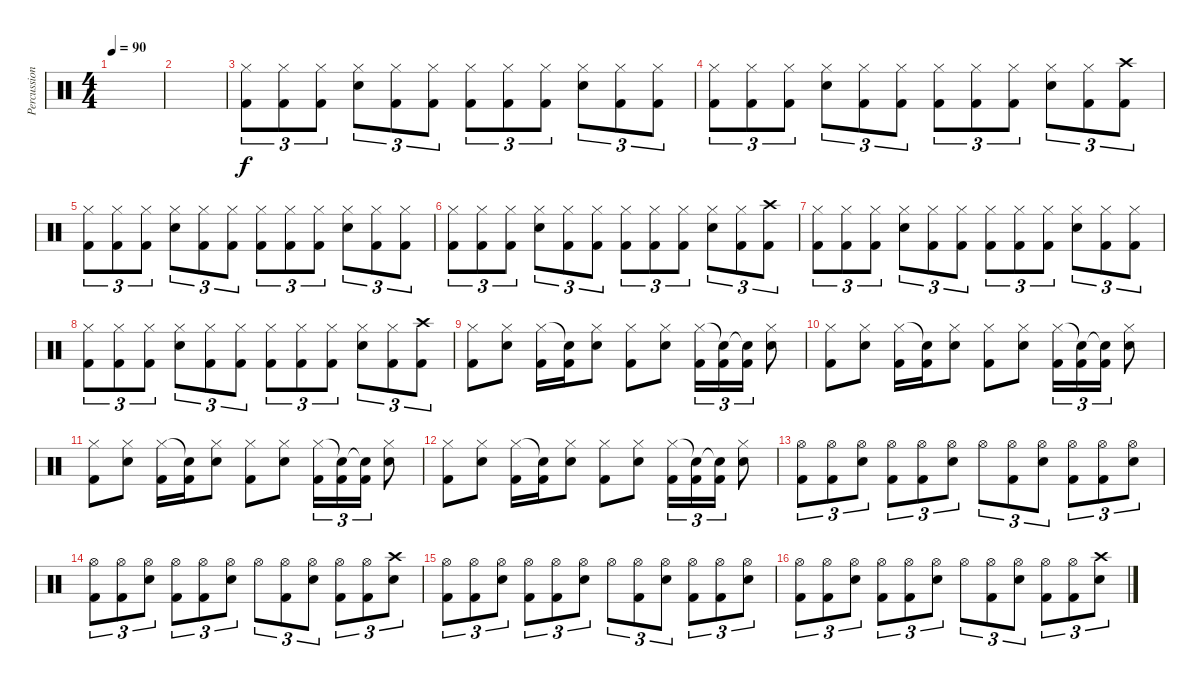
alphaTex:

\track ("Percussion" "Percussion") {instrument percussion}
\staff {score}
\articulation defaults
\ts (4 4)
\tempo 90
\clef neutral
\ks c
|
|
("Hi-Hat (closed)" "Kick (hit) 2").8{tu (3 2)} ("Hi-Hat (closed)" "Kick (hit) 2").8{tu (3 2)} ("Hi-Hat (closed)" "Kick (hit) 2").8{tu (3 2)} ("Hi-Hat (closed)" "Electric Snare (hit)").8{tu (3 2)} ("Hi-Hat (closed)" "Kick (hit) 2").8{tu (3 2)} ("Hi-Hat (closed)" "Kick (hit) 2").8{tu (3 2)} ("Hi-Hat (closed)" "Kick (hit) 2").8{tu (3 2)} ("Hi-Hat (closed)" "Kick (hit) 2").8{tu (3 2)} ("Hi-Hat (closed)" "Kick (hit) 2").8{tu (3 2)} ("Hi-Hat (closed)" "Electric Snare (hit)").8{tu (3 2)} ("Hi-Hat (closed)" "Kick (hit) 2").8{tu (3 2)} ("Hi-Hat (closed)" "Kick (hit) 2").8{tu (3 2)} |
("Hi-Hat (closed)" "Kick (hit) 2").8{tu (3 2)} ("Hi-Hat (closed)" "Kick (hit) 2").8{tu (3 2)} ("Hi-Hat (closed)" "Kick (hit) 2").8{tu (3 2)} ("Hi-Hat (closed)" "Electric Snare (hit)").8{tu (3 2)} ("Hi-Hat (closed)" "Kick (hit) 2").8{tu (3 2)} ("Hi-Hat (closed)" "Kick (hit) 2").8{tu (3 2)} ("Hi-Hat (closed)" "Kick (hit) 2").8{tu (3 2)} ("Hi-Hat (closed)" "Kick (hit) 2").8{tu (3 2)} ("Hi-Hat (closed)" "Kick (hit) 2").8{tu (3 2)} ("Hi-Hat (closed)" "Electric Snare (hit)").8{tu (3 2)} ("Hi-Hat (closed)" "Kick (hit) 2").8{tu (3 2)} ("Crash high (hit)" "Kick (hit) 2").8{tu (3 2)} |
("Hi-Hat (closed)" "Kick (hit) 2").8{tu (3 2)} ("Hi-Hat (closed)" "Kick (hit) 2").8{tu (3 2)} ("Hi-Hat (closed)" "Kick (hit) 2").8{tu (3 2)} ("Hi-Hat (closed)" "Electric Snare (hit)").8{tu (3 2)} ("Hi-Hat (closed)" "Kick (hit) 2").8{tu (3 2)} ("Hi-Hat (closed)" "Kick (hit) 2").8{tu (3 2)} ("Hi-Hat (closed)" "Kick (hit) 2").8{tu (3 2)} ("Hi-Hat (closed)" "Kick (hit) 2").8{tu (3 2)} ("Hi-Hat (closed)" "Kick (hit) 2").8{tu (3 2)} ("Hi-Hat (closed)" "Electric Snare (hit)").8{tu (3 2)} ("Hi-Hat (closed)" "Kick (hit) 2").8{tu (3 2)} ("Hi-Hat (closed)" "Kick (hit) 2").8{tu (3 2)} |
("Hi-Hat (closed)" "Kick (hit) 2").8{tu (3 2)} ("Hi-Hat (closed)" "Kick (hit) 2").8{tu (3 2)} ("Hi-Hat (closed)" "Kick (hit) 2").8{tu (3 2)} ("Hi-Hat (closed)" "Electric Snare (hit)").8{tu (3 2)} ("Hi-Hat (closed)" "Kick (hit) 2").8{tu (3 2)} ("Hi-Hat (closed)" "Kick (hit) 2").8{tu (3 2)} ("Hi-Hat (closed)" "Kick (hit) 2").8{tu (3 2)} ("Hi-Hat (closed)" "Kick (hit) 2").8{tu (3 2)} ("Hi-Hat (closed)" "Kick (hit) 2").8{tu (3 2)} ("Hi-Hat (closed)" "Electric Snare (hit)").8{tu (3 2)} ("Hi-Hat (closed)" "Kick (hit) 2").8{tu (3 2)} ("Crash high (hit)" "Kick (hit) 2").8{tu (3 2)} |
("Hi-Hat (closed)" "Kick (hit) 2").8{tu (3 2)} ("Hi-Hat (closed)" "Kick (hit) 2").8{tu (3 2)} ("Hi-Hat (closed)" "Kick (hit) 2").8{tu (3 2)} ("Hi-Hat (closed)" "Electric Snare (hit)").8{tu (3 2)} ("Hi-Hat (closed)" "Kick (hit) 2").8{tu (3 2)} ("Hi-Hat (closed)" "Kick (hit) 2").8{tu (3 2)} ("Hi-Hat (closed)" "Kick (hit) 2").8{tu (3 2)} ("Hi-Hat (closed)" "Kick (hit) 2").8{tu (3 2)} ("Hi-Hat (closed)" "Kick (hit) 2").8{tu (3 2)} ("Hi-Hat (closed)" "Electric Snare (hit)").8{tu (3 2)} ("Hi-Hat (closed)" "Kick (hit) 2").8{tu (3 2)} ("Hi-Hat (closed)" "Kick (hit) 2").8{tu (3 2)} |
("Hi-Hat (closed)" "Kick (hit) 2").8{tu (3 2)} ("Hi-Hat (closed)" "Kick (hit) 2").8{tu (3 2)} ("Hi-Hat (closed)" "Kick (hit) 2").8{tu (3 2)} ("Hi-Hat (closed)" "Electric Snare (hit)").8{tu (3 2)} ("Hi-Hat (closed)" "Kick (hit) 2").8{tu (3 2)} ("Hi-Hat (closed)" "Kick (hit) 2").8{tu (3 2)} ("Hi-Hat (closed)" "Kick (hit) 2").8{tu (3 2)} ("Hi-Hat (closed)" "Kick (hit) 2").8{tu (3 2)} ("Hi-Hat (closed)" "Kick (hit) 2").8{tu (3 2)} ("Hi-Hat (closed)" "Electric Snare (hit)").8{tu (3 2)} ("Hi-Hat (closed)" "Kick (hit) 2").8{tu (3 2)} ("Crash high (hit)" "Kick (hit) 2").8{tu (3 2)} |
("Hi-Hat (closed)" "Kick (hit) 2").8 ("Hi-Hat (closed)" "Electric Snare (hit)").8 ("Hi-Hat (closed)" "Kick (hit) 2").16 ("Snare (hit)"{t} "Kick (hit) 2").16 ("Hi-Hat (closed)" "Electric Snare (hit)").8 ("Hi-Hat (closed)" "Kick (hit) 2").8 ("Hi-Hat (closed)" "Electric Snare (hit)").8 ("Hi-Hat (closed)" "Kick (hit) 2").16{tu (3 2)} ("Snare (hit)"{t} "Kick (hit) 2").16{tu (3 2)} ("Snare (hit)"{t} "Kick (hit) 2").16{tu (3 2)} ("Hi-Hat (closed)" "Electric Snare (hit)").8 |
("Hi-Hat (closed)" "Kick (hit) 2").8 ("Hi-Hat (closed)" "Electric Snare (hit)").8 ("Hi-Hat (closed)" "Kick (hit) 2").16 ("Snare (hit)"{t} "Kick (hit) 2").16 ("Hi-Hat (closed)" "Electric Snare (hit)").8 ("Hi-Hat (closed)" "Kick (hit) 2").8 ("Hi-Hat (closed)" "Electric Snare (hit)").8 ("Hi-Hat (closed)" "Kick (hit) 2").16{tu (3 2)} ("Snare (hit)"{t} "Kick (hit) 2").16{tu (3 2)} ("Snare (hit)"{t} "Kick (hit) 2").16{tu (3 2)} ("Hi-Hat (closed)" "Electric Snare (hit)").8 |
("Hi-Hat (closed)" "Kick (hit) 2").8 ("Hi-Hat (closed)" "Electric Snare (hit)").8 ("Hi-Hat (closed)" "Kick (hit) 2").16 ("Snare (hit)"{t} "Kick (hit) 2").16 ("Hi-Hat (closed)" "Electric Snare (hit)").8 ("Hi-Hat (closed)" "Kick (hit) 2").8 ("Hi-Hat (closed)" "Electric Snare (hit)").8 ("Hi-Hat (closed)" "Kick (hit) 2").16{tu (3 2)} ("Snare (hit)"{t} "Kick (hit) 2").16{tu (3 2)} ("Snare (hit)"{t} "Kick (hit) 2").16{tu (3 2)} ("Hi-Hat (closed)" "Electric Snare (hit)").8 |
("Hi-Hat (closed)" "Kick (hit) 2").8 ("Hi-Hat (closed)" "Electric Snare (hit)").8 ("Hi-Hat (closed)" "Kick (hit) 2").16 ("Snare (hit)"{t} "Kick (hit) 2").16 ("Hi-Hat (closed)" "Electric Snare (hit)").8 ("Hi-Hat (closed)" "Kick (hit) 2").8 ("Hi-Hat (closed)" "Electric Snare (hit)").8 ("Hi-Hat (closed)" "Kick (hit) 2").16{tu (3 2)} ("Snare (hit)"{t} "Kick (hit) 2").16{tu (3 2)} ("Snare (hit)"{t} "Kick (hit) 2").16{tu (3 2)} ("Hi-Hat (closed)" "Electric Snare (hit)").8 |
("Hi-Hat (open)" "Kick (hit) 2").8{tu (3 2)} ("Hi-Hat (open)" "Kick (hit) 2").8{tu (3 2)} ("Hi-Hat (open)" "Electric Snare (hit)").8{tu (3 2)} ("Hi-Hat (open)" "Kick (hit) 2").8{tu (3 2)} ("Hi-Hat (open)" "Kick (hit) 2").8{tu (3 2)} ("Hi-Hat (open)" "Electric Snare (hit)").8{tu (3 2)} "Hi-Hat (open)".8{tu (3 2)} ("Hi-Hat (open)" "Kick (hit) 2").8{tu (3 2)} ("Hi-Hat (open)" "Electric Snare (hit)").8{tu (3 2)} ("Hi-Hat (open)" "Kick (hit) 2").8{tu (3 2)} ("Hi-Hat (open)" "Kick (hit) 2").8{tu (3 2)} ("Hi-Hat (open)" "Electric Snare (hit)").8{tu (3 2)} |
("Hi-Hat (open)" "Kick (hit) 2").8{tu (3 2)} ("Hi-Hat (open)" "Kick (hit) 2").8{tu (3 2)} ("Hi-Hat (open)" "Electric Snare (hit)").8{tu (3 2)} ("Hi-Hat (open)" "Kick (hit) 2").8{tu (3 2)} ("Hi-Hat (open)" "Kick (hit) 2").8{tu (3 2)} ("Hi-Hat (open)" "Electric Snare (hit)").8{tu (3 2)} "Hi-Hat (open)".8{tu (3 2)} ("Hi-Hat (open)" "Kick (hit) 2").8{tu (3 2)} ("Hi-Hat (open)" "Electric Snare (hit)").8{tu (3 2)} ("Hi-Hat (open)" "Kick (hit) 2").8{tu (3 2)} ("Hi-Hat (open)" "Kick (hit) 2").8{tu (3 2)} ("Crash high (hit)" "Electric Snare (hit)").8{tu (3 2)} |
("Hi-Hat (open)" "Kick (hit) 2").8{tu (3 2)} ("Hi-Hat (open)" "Kick (hit) 2").8{tu (3 2)} ("Hi-Hat (open)" "Electric Snare (hit)").8{tu (3 2)} ("Hi-Hat (open)" "Kick (hit) 2").8{tu (3 2)} ("Hi-Hat (open)" "Kick (hit) 2").8{tu (3 2)} ("Hi-Hat (open)" "Electric Snare (hit)").8{tu (3 2)} "Hi-Hat (open)".8{tu (3 2)} ("Hi-Hat (open)" "Kick (hit) 2").8{tu (3 2)} ("Hi-Hat (open)" "Electric Snare (hit)").8{tu (3 2)} ("Hi-Hat (open)" "Kick (hit) 2").8{tu (3 2)} ("Hi-Hat (open)" "Kick (hit) 2").8{tu (3 2)} ("Hi-Hat (open)" "Electric Snare (hit)").8{tu (3 2)} |
("Hi-Hat (open)" "Kick (hit) 2").8{tu (3 2)} ("Hi-Hat (open)" "Kick (hit) 2").8{tu (3 2)} ("Hi-Hat (open)" "Electric Snare (hit)").8{tu (3 2)} ("Hi-Hat (open)" "Kick (hit) 2").8{tu (3 2)} ("Hi-Hat (open)" "Kick (hit) 2").8{tu (3 2)} ("Hi-Hat (open)" "Electric Snare (hit)").8{tu (3 2)} "Hi-Hat (open)".8{tu (3 2)} ("Hi-Hat (open)" "Kick (hit) 2").8{tu (3 2)} ("Hi-Hat (open)" "Electric Snare (hit)").8{tu (3 2)} ("Hi-Hat (open)" "Kick (hit) 2").8{tu (3 2)} ("Hi-Hat (open)" "Kick (hit) 2").8{tu (3 2)} ("Crash high (hit)" "Electric Snare (hit)").8{tu (3 2)}
